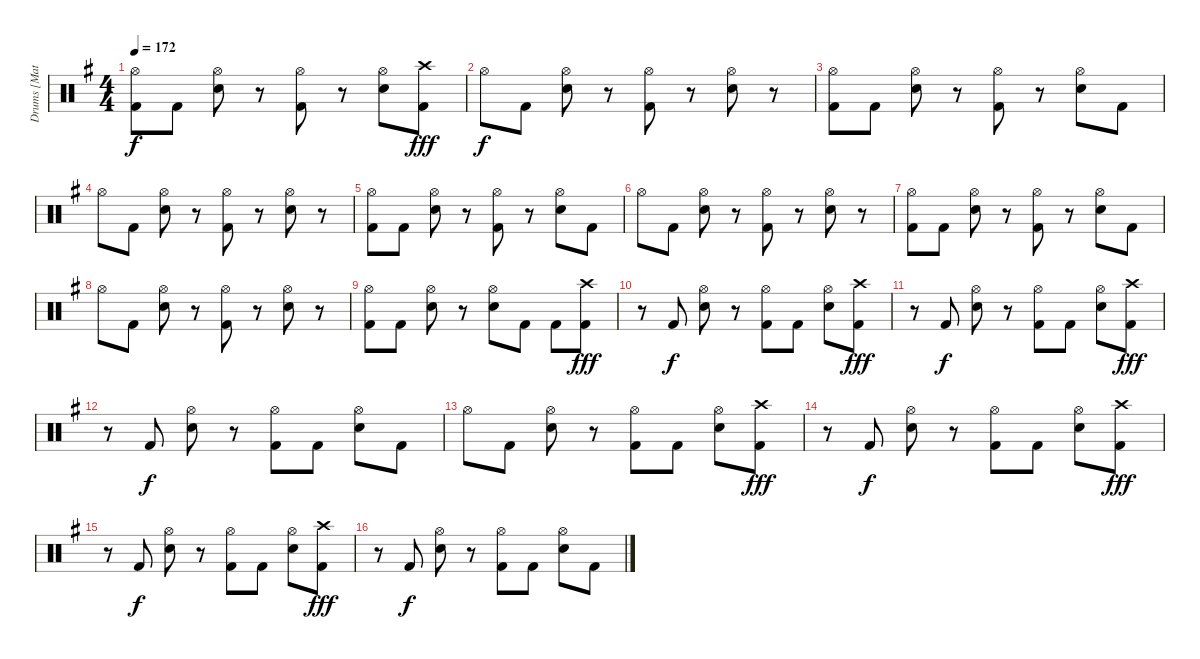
\track ("Drums [Matt]" "Drums [Mat") {instrument percussion}
\staff {score}
\articulation defaults
\ts (4 4)
\tempo 172
\clef neutral
\ks g
("Hi-Hat (open)" "Kick (hit) 2").8{dy f} "Kick (hit) 2".8 ("Hi-Hat (open)" "Snare (hit) 2").8 r.8 ("Hi-Hat (open)" "Kick (hit) 2").8 r.8 ("Hi-Hat (open)" "Snare (hit) 2").8 ("Kick (hit) 2" "Crash high (hit)").8{dy fff} |
"Hi-Hat (open)".8{dy f} "Kick (hit) 2".8 ("Hi-Hat (open)" "Snare (hit) 2").8 r.8 ("Hi-Hat (open)" "Kick (hit) 2").8 r.8 ("Hi-Hat (open)" "Snare (hit) 2").8 r.8 |
("Hi-Hat (open)" "Kick (hit) 2").8 "Kick (hit) 2".8 ("Hi-Hat (open)" "Snare (hit) 2").8 r.8 ("Hi-Hat (open)" "Kick (hit) 2").8 r.8 ("Hi-Hat (open)" "Snare (hit) 2").8 "Kick (hit) 2".8 |
"Hi-Hat (open)".8 "Kick (hit) 2".8 ("Hi-Hat (open)" "Snare (hit) 2").8 r.8 ("Hi-Hat (open)" "Kick (hit) 2").8 r.8 ("Hi-Hat (open)" "Snare (hit) 2").8 r.8 |
("Hi-Hat (open)" "Kick (hit) 2").8 "Kick (hit) 2".8 ("Hi-Hat (open)" "Snare (hit) 2").8 r.8 ("Hi-Hat (open)" "Kick (hit) 2").8 r.8 ("Hi-Hat (open)" "Snare (hit) 2").8 "Kick (hit) 2".8 |
"Hi-Hat (open)".8 "Kick (hit) 2".8 ("Hi-Hat (open)" "Snare (hit) 2").8 r.8 ("Hi-Hat (open)" "Kick (hit) 2").8 r.8 ("Hi-Hat (open)" "Snare (hit) 2").8 r.8 |
("Hi-Hat (open)" "Kick (hit) 2").8 "Kick (hit) 2".8 ("Hi-Hat (open)" "Snare (hit) 2").8 r.8 ("Hi-Hat (open)" "Kick (hit) 2").8 r.8 ("Hi-Hat (open)" "Snare (hit) 2").8 "Kick (hit) 2".8 |
"Hi-Hat (open)".8 "Kick (hit) 2".8 ("Hi-Hat (open)" "Snare (hit) 2").8 r.8 ("Hi-Hat (open)" "Kick (hit) 2").8 r.8 ("Hi-Hat (open)" "Snare (hit) 2").8 r.8 |
("Hi-Hat (open)" "Kick (hit) 2").8 "Kick (hit) 2".8 ("Hi-Hat (open)" "Snare (hit) 2").8 r.8 ("Hi-Hat (open)" "Snare (hit) 2").8 "Kick (hit) 2".8 "Kick (hit) 2".8 ("Kick (hit) 2" "Crash high (hit)").8{dy fff} |
r.8 "Kick (hit) 2".8{dy f} ("Hi-Hat (open)" "Snare (hit) 2").8 r.8 ("Hi-Hat (open)" "Kick (hit) 2").8 "Kick (hit) 2".8 ("Hi-Hat (open)" "Snare (hit) 2").8 ("Kick (hit) 2" "Crash high (hit)").8{dy fff} |
r.8 "Kick (hit) 2".8{dy f} ("Hi-Hat (open)" "Snare (hit) 2").8 r.8 ("Hi-Hat (open)" "Kick (hit) 2").8 "Kick (hit) 2".8 ("Hi-Hat (open)" "Snare (hit) 2").8 ("Kick (hit) 2" "Crash high (hit)").8{dy fff} |
r.8 "Kick (hit) 2".8{dy f} ("Hi-Hat (open)" "Snare (hit) 2").8 r.8 ("Hi-Hat (open)" "Kick (hit) 2").8 "Kick (hit) 2".8 ("Hi-Hat (open)" "Snare (hit) 2").8 "Kick (hit) 2".8 |
"Hi-Hat (open)".8 "Kick (hit) 2".8 ("Hi-Hat (open)" "Snare (hit) 2").8 r.8 ("Hi-Hat (open)" "Kick (hit) 2").8 "Kick (hit) 2".8 ("Hi-Hat (open)" "Snare (hit) 2").8 ("Kick (hit) 2" "Crash high (hit)").8{dy fff} |
r.8 "Kick (hit) 2".8{dy f} ("Hi-Hat (open)" "Snare (hit) 2").8 r.8 ("Hi-Hat (open)" "Kick (hit) 2").8 "Kick (hit) 2".8 ("Hi-Hat (open)" "Snare (hit) 2").8 ("Kick (hit) 2" "Crash high (hit)").8{dy fff} |
r.8 "Kick (hit) 2".8{dy f} ("Hi-Hat (open)" "Snare (hit) 2").8 r.8 ("Hi-Hat (open)" "Kick (hit) 2").8 "Kick (hit) 2".8 ("Hi-Hat (open)" "Snare (hit) 2").8 ("Kick (hit) 2" "Crash high (hit)").8{dy fff} |
r.8 "Kick (hit) 2".8{dy f} ("Hi-Hat (open)" "Snare (hit) 2").8 r.8 ("Hi-Hat (open)" "Kick (hit) 2").8 "Kick (hit) 2".8 ("Hi-Hat (open)" "Snare (hit) 2").8 "Kick (hit) 2".8
